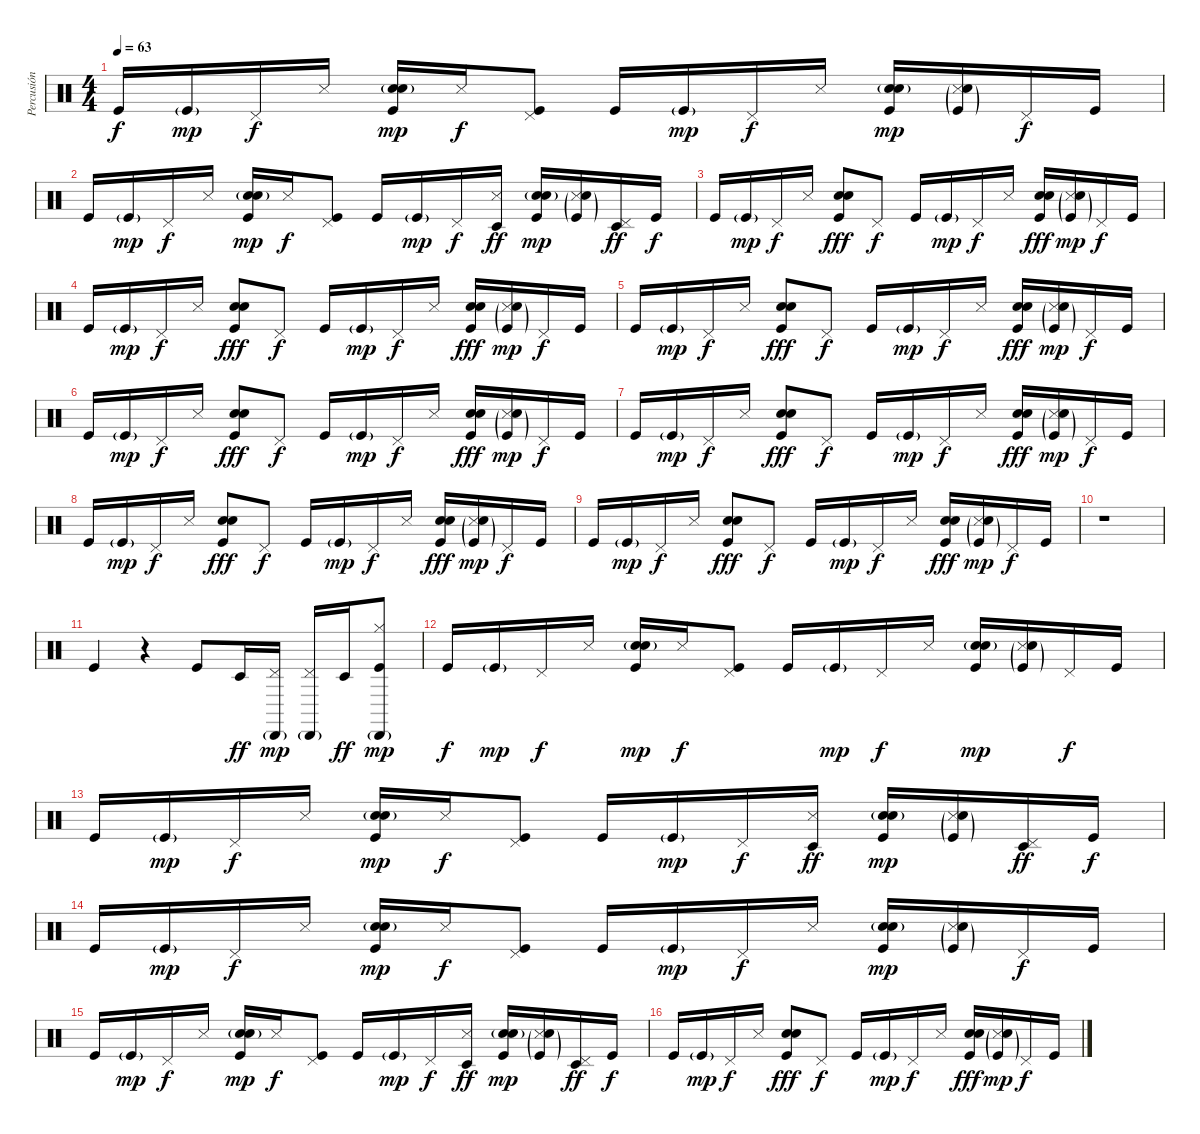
\track ("Percusión" "Percusión") {instrument percussion}
\staff {score}
\articulation defaults
\ts (4 4)
\tempo 63
\clef neutral
\ks c "Kick (hit)".16{dy f} "Kick (hit)"{g}.16{dy mp} "Pedal Hi-Hat (hit)".16{dy f} "Snare (side stick) 3".16
("Kick (hit)" "Snare (hit) 2"{g} "Hand Clap (hit)").16{dy mp} "Snare (side stick) 3".16{dy f} ("Kick (hit)" "Pedal Hi-Hat (hit)").8 "Kick (hit)".16 "Kick (hit)"{g}.16{dy mp} "Pedal Hi-Hat (hit)".16{dy f} "Snare (side stick) 3".16 ("Kick (hit)" "Snare (hit) 2"{g} "Hand Clap (hit)").16{dy mp} ("Kick (hit)"{g} "Snare (side stick) 3" "Hand Clap (hit)"{g}).16 "Pedal Hi-Hat (hit)".16{dy f} "Kick (hit)".16 |
"Kick (hit)".16 "Kick (hit)"{g}.16{dy mp} "Pedal Hi-Hat (hit)".16{dy f} "Snare (side stick) 3".16 ("Kick (hit)" "Snare (hit) 2"{g} "Hand Clap (hit)").16{dy mp} "Snare (side stick) 3".16{dy f} ("Kick (hit)" "Pedal Hi-Hat (hit)").8 "Kick (hit)".16 "Kick (hit)"{g}.16{dy mp} "Pedal Hi-Hat (hit)".16{dy f} ("Timbale low (hit)" "Snare (side stick) 3").16{dy ff} ("Kick (hit)" "Snare (hit) 2"{g} "Hand Clap (hit)").16{dy mp} ("Kick (hit)"{g} "Snare (side stick) 3" "Hand Clap (hit)"{g}).16 ("Timbale low (hit)" "Pedal Hi-Hat (hit)").16{dy ff} "Kick (hit)".16{dy f} |
"Kick (hit)".16 "Kick (hit)"{g}.16{dy mp} "Pedal Hi-Hat (hit)".16{dy f} "Snare (side stick) 3".16 ("Kick (hit)" "Snare (hit) 2" "Hand Clap (hit)").8{dy fff} "Pedal Hi-Hat (hit)".8{dy f} "Kick (hit)".16 "Kick (hit)"{g}.16{dy mp} "Pedal Hi-Hat (hit)".16{dy f} "Snare (side stick) 3".16 ("Kick (hit)" "Snare (hit) 2" "Hand Clap (hit)").16{dy fff} ("Kick (hit)"{g} "Snare (side stick) 3" "Hand Clap (hit)"{g}).16{dy mp} "Pedal Hi-Hat (hit)".16{dy f} "Kick (hit)".16 |
"Kick (hit)".16 "Kick (hit)"{g}.16{dy mp} "Pedal Hi-Hat (hit)".16{dy f} "Snare (side stick) 3".16 ("Kick (hit)" "Snare (hit) 2" "Hand Clap (hit)").8{dy fff} "Pedal Hi-Hat (hit)".8{dy f} "Kick (hit)".16 "Kick (hit)"{g}.16{dy mp} "Pedal Hi-Hat (hit)".16{dy f} "Snare (side stick) 3".16 ("Kick (hit)" "Snare (hit) 2" "Hand Clap (hit)").16{dy fff} ("Kick (hit)"{g} "Snare (side stick) 3" "Hand Clap (hit)"{g}).16{dy mp} "Pedal Hi-Hat (hit)".16{dy f} "Kick (hit)".16 |
"Kick (hit)".16 "Kick (hit)"{g}.16{dy mp} "Pedal Hi-Hat (hit)".16{dy f} "Snare (side stick) 3".16 ("Kick (hit)" "Snare (hit) 2" "Hand Clap (hit)").8{dy fff} "Pedal Hi-Hat (hit)".8{dy f} "Kick (hit)".16 "Kick (hit)"{g}.16{dy mp} "Pedal Hi-Hat (hit)".16{dy f} "Snare (side stick) 3".16 ("Kick (hit)" "Snare (hit) 2" "Hand Clap (hit)").16{dy fff} ("Kick (hit)"{g} "Snare (side stick) 3" "Hand Clap (hit)"{g}).16{dy mp} "Pedal Hi-Hat (hit)".16{dy f} "Kick (hit)".16 |
"Kick (hit)".16 "Kick (hit)"{g}.16{dy mp} "Pedal Hi-Hat (hit)".16{dy f} "Snare (side stick) 3".16 ("Kick (hit)" "Snare (hit) 2" "Hand Clap (hit)").8{dy fff} "Pedal Hi-Hat (hit)".8{dy f} "Kick (hit)".16 "Kick (hit)"{g}.16{dy mp} "Pedal Hi-Hat (hit)".16{dy f} "Snare (side stick) 3".16 ("Kick (hit)" "Snare (hit) 2" "Hand Clap (hit)").16{dy fff} ("Kick (hit)"{g} "Snare (side stick) 3" "Hand Clap (hit)"{g}).16{dy mp} "Pedal Hi-Hat (hit)".16{dy f} "Kick (hit)".16 |
"Kick (hit)".16 "Kick (hit)"{g}.16{dy mp} "Pedal Hi-Hat (hit)".16{dy f} "Snare (side stick) 3".16 ("Kick (hit)" "Snare (hit) 2" "Hand Clap (hit)").8{dy fff} "Pedal Hi-Hat (hit)".8{dy f} "Kick (hit)".16 "Kick (hit)"{g}.16{dy mp} "Pedal Hi-Hat (hit)".16{dy f} "Snare (side stick) 3".16 ("Kick (hit)" "Snare (hit) 2" "Hand Clap (hit)").16{dy fff} ("Kick (hit)"{g} "Snare (side stick) 3" "Hand Clap (hit)"{g}).16{dy mp} "Pedal Hi-Hat (hit)".16{dy f} "Kick (hit)".16 |
"Kick (hit)".16 "Kick (hit)"{g}.16{dy mp} "Pedal Hi-Hat (hit)".16{dy f} "Snare (side stick) 3".16 ("Kick (hit)" "Snare (hit) 2" "Hand Clap (hit)").8{dy fff} "Pedal Hi-Hat (hit)".8{dy f} "Kick (hit)".16 "Kick (hit)"{g}.16{dy mp} "Pedal Hi-Hat (hit)".16{dy f} "Snare (side stick) 3".16 ("Kick (hit)" "Snare (hit) 2" "Hand Clap (hit)").16{dy fff} ("Kick (hit)"{g} "Snare (side stick) 3" "Hand Clap (hit)"{g}).16{dy mp} "Pedal Hi-Hat (hit)".16{dy f} "Kick (hit)".16 |
"Kick (hit)".16 "Kick (hit)"{g}.16{dy mp} "Pedal Hi-Hat (hit)".16{dy f} "Snare (side stick) 3".16 ("Kick (hit)" "Snare (hit) 2" "Hand Clap (hit)").8{dy fff} "Pedal Hi-Hat (hit)".8{dy f} "Kick (hit)".16 "Kick (hit)"{g}.16{dy mp} "Pedal Hi-Hat (hit)".16{dy f} "Snare (side stick) 3".16 ("Kick (hit)" "Snare (hit) 2" "Hand Clap (hit)").16{dy fff} ("Kick (hit)"{g} "Snare (side stick) 3" "Hand Clap (hit)"{g}).16{dy mp} "Pedal Hi-Hat (hit)".16{dy f} "Kick (hit)".16 |
r.1 |
"Kick (hit)".4 r.4 "Kick (hit)".8 "Timbale low (hit)".16{dy ff} ("Cabasa (hit)"{g} "Pedal Hi-Hat (hit)").16{dy mp} ("Cabasa (hit)"{g} "Pedal Hi-Hat (hit)").16 "Timbale low (hit)".16{dy ff} ("Kick (hit)" "Cabasa (hit)"{g} "Hi-Hat (closed)").8{dy mp} |
"Kick (hit)".16{dy f} "Kick (hit)"{g}.16{dy mp} "Pedal Hi-Hat (hit)".16{dy f} "Snare (side stick) 3".16 ("Kick (hit)" "Snare (hit) 2"{g} "Hand Clap (hit)").16{dy mp} "Snare (side stick) 3".16{dy f} ("Kick (hit)" "Pedal Hi-Hat (hit)").8 "Kick (hit)".16 "Kick (hit)"{g}.16{dy mp} "Pedal Hi-Hat (hit)".16{dy f} "Snare (side stick) 3".16 ("Kick (hit)" "Snare (hit) 2"{g} "Hand Clap (hit)").16{dy mp} ("Kick (hit)"{g} "Snare (side stick) 3" "Hand Clap (hit)"{g}).16 "Pedal Hi-Hat (hit)".16{dy f} "Kick (hit)".16 |
"Kick (hit)".16 "Kick (hit)"{g}.16{dy mp} "Pedal Hi-Hat (hit)".16{dy f} "Snare (side stick) 3".16 ("Kick (hit)" "Snare (hit) 2"{g} "Hand Clap (hit)").16{dy mp} "Snare (side stick) 3".16{dy f} ("Kick (hit)" "Pedal Hi-Hat (hit)").8 "Kick (hit)".16 "Kick (hit)"{g}.16{dy mp} "Pedal Hi-Hat (hit)".16{dy f} ("Timbale low (hit)" "Snare (side stick) 3").16{dy ff} ("Kick (hit)" "Snare (hit) 2"{g} "Hand Clap (hit)").16{dy mp} ("Kick (hit)"{g} "Snare (side stick) 3" "Hand Clap (hit)"{g}).16 ("Timbale low (hit)" "Pedal Hi-Hat (hit)").16{dy ff} "Kick (hit)".16{dy f} |
"Kick (hit)".16 "Kick (hit)"{g}.16{dy mp} "Pedal Hi-Hat (hit)".16{dy f} "Snare (side stick) 3".16 ("Kick (hit)" "Snare (hit) 2"{g} "Hand Clap (hit)").16{dy mp} "Snare (side stick) 3".16{dy f} ("Kick (hit)" "Pedal Hi-Hat (hit)").8 "Kick (hit)".16 "Kick (hit)"{g}.16{dy mp} "Pedal Hi-Hat (hit)".16{dy f} "Snare (side stick) 3".16 ("Kick (hit)" "Snare (hit) 2"{g} "Hand Clap (hit)").16{dy mp} ("Kick (hit)"{g} "Snare (side stick) 3" "Hand Clap (hit)"{g}).16 "Pedal Hi-Hat (hit)".16{dy f} "Kick (hit)".16 |
"Kick (hit)".16 "Kick (hit)"{g}.16{dy mp} "Pedal Hi-Hat (hit)".16{dy f} "Snare (side stick) 3".16 ("Kick (hit)" "Snare (hit) 2"{g} "Hand Clap (hit)").16{dy mp} "Snare (side stick) 3".16{dy f} ("Kick (hit)" "Pedal Hi-Hat (hit)").8 "Kick (hit)".16 "Kick (hit)"{g}.16{dy mp} "Pedal Hi-Hat (hit)".16{dy f} ("Timbale low (hit)" "Snare (side stick) 3").16{dy ff} ("Kick (hit)" "Snare (hit) 2"{g} "Hand Clap (hit)").16{dy mp} ("Kick (hit)"{g} "Snare (side stick) 3" "Hand Clap (hit)"{g}).16 ("Timbale low (hit)" "Pedal Hi-Hat (hit)").16{dy ff} "Kick (hit)".16{dy f} |
"Kick (hit)".16 "Kick (hit)"{g}.16{dy mp} "Pedal Hi-Hat (hit)".16{dy f} "Snare (side stick) 3".16 ("Kick (hit)" "Snare (hit) 2" "Hand Clap (hit)").8{dy fff} "Pedal Hi-Hat (hit)".8{dy f} "Kick (hit)".16 "Kick (hit)"{g}.16{dy mp} "Pedal Hi-Hat (hit)".16{dy f} "Snare (side stick) 3".16 ("Kick (hit)" "Snare (hit) 2" "Hand Clap (hit)").16{dy fff} ("Kick (hit)"{g} "Snare (side stick) 3" "Hand Clap (hit)"{g}).16{dy mp} "Pedal Hi-Hat (hit)".16{dy f} "Kick (hit)".16
